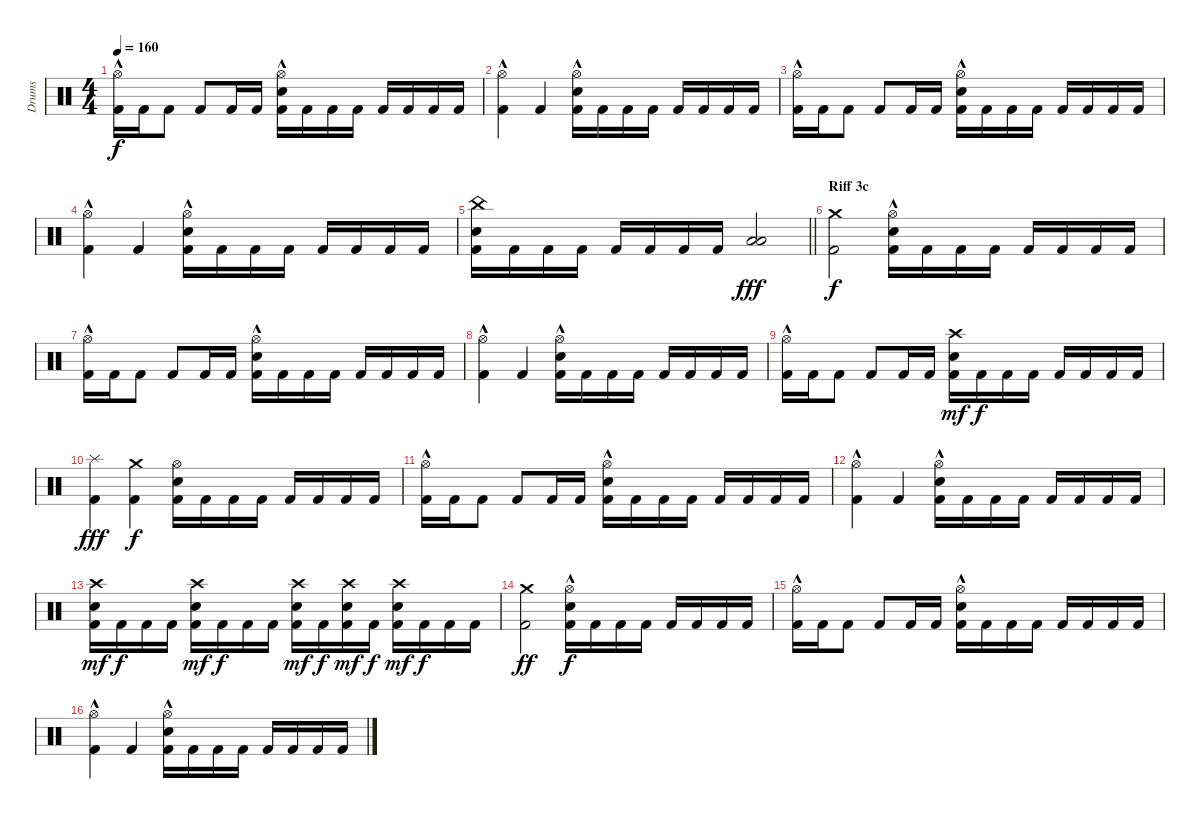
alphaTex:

\track ("Drums" "Drums") {instrument percussion}
\staff {score}
\articulation defaults
\ts (4 4)
\tempo 160
\clef neutral
\ks c
("Hi-Hat (open)"{hac} "Kick (hit) 2").16{dy f} "Kick (hit) 2".16 "Kick (hit) 2".8 "Kick (hit) 2".8 "Kick (hit) 2".16 "Kick (hit) 2".16 ("Hi-Hat (open)"{hac} "Snare (hit) 2" "Kick (hit) 2").16 "Kick (hit) 2".16 "Kick (hit) 2".16 "Kick (hit) 2".16 "Kick (hit) 2".16 "Kick (hit) 2".16 "Kick (hit) 2".16 "Kick (hit) 2".16 |
("Hi-Hat (open)"{hac} "Kick (hit) 2").4 "Kick (hit) 2".4 ("Hi-Hat (open)"{hac} "Snare (hit) 2" "Kick (hit) 2").16 "Kick (hit) 2".16 "Kick (hit) 2".16 "Kick (hit) 2".16 "Kick (hit) 2".16 "Kick (hit) 2".16 "Kick (hit) 2".16 "Kick (hit) 2".16 |
("Hi-Hat (open)"{hac} "Kick (hit) 2").16 "Kick (hit) 2".16 "Kick (hit) 2".8 "Kick (hit) 2".8 "Kick (hit) 2".16 "Kick (hit) 2".16 ("Hi-Hat (open)"{hac} "Snare (hit) 2" "Kick (hit) 2").16 "Kick (hit) 2".16 "Kick (hit) 2".16 "Kick (hit) 2".16 "Kick (hit) 2".16 "Kick (hit) 2".16 "Kick (hit) 2".16 "Kick (hit) 2".16 |
("Hi-Hat (open)"{hac} "Kick (hit) 2").4 "Kick (hit) 2".4 ("Hi-Hat (open)"{hac} "Snare (hit) 2" "Kick (hit) 2").16 "Kick (hit) 2".16 "Kick (hit) 2".16 "Kick (hit) 2".16 "Kick (hit) 2".16 "Kick (hit) 2".16 "Kick (hit) 2".16 "Kick (hit) 2".16 |
\barLineRight lightlight
("China (hit)" "Snare (hit) 2" "Kick (hit) 2").16 "Kick (hit) 2".16 "Kick (hit) 2".16 "Kick (hit) 2".16 "Kick (hit) 2".16 "Kick (hit) 2".16 "Kick (hit) 2".16 "Kick (hit) 2".16 ("Low Floor Tom (hit)" "Low Tom (hit)").2{dy fff} |
\section ("" "Riff 3c")
("Crash medium (hit)" "Kick (hit) 2").2{dy f} ("Hi-Hat (open)"{hac} "Snare (hit) 2" "Kick (hit) 2").16 "Kick (hit) 2".16 "Kick (hit) 2".16 "Kick (hit) 2".16 "Kick (hit) 2".16 "Kick (hit) 2".16 "Kick (hit) 2".16 "Kick (hit) 2".16 |
("Hi-Hat (open)"{hac} "Kick (hit) 2").16 "Kick (hit) 2".16 "Kick (hit) 2".8 "Kick (hit) 2".8 "Kick (hit) 2".16 "Kick (hit) 2".16 ("Hi-Hat (open)"{hac} "Snare (hit) 2" "Kick (hit) 2").16 "Kick (hit) 2".16 "Kick (hit) 2".16 "Kick (hit) 2".16 "Kick (hit) 2".16 "Kick (hit) 2".16 "Kick (hit) 2".16 "Kick (hit) 2".16 |
("Hi-Hat (open)"{hac} "Kick (hit) 2").4 "Kick (hit) 2".4 ("Hi-Hat (open)"{hac} "Snare (hit) 2" "Kick (hit) 2").16 "Kick (hit) 2".16 "Kick (hit) 2".16 "Kick (hit) 2".16 "Kick (hit) 2".16 "Kick (hit) 2".16 "Kick (hit) 2".16 "Kick (hit) 2".16 |
("Hi-Hat (open)"{hac} "Kick (hit) 2").16 "Kick (hit) 2".16 "Kick (hit) 2".8 "Kick (hit) 2".8 "Kick (hit) 2".16 "Kick (hit) 2".16 ("Crash high (hit)" "Snare (hit) 2" "Kick (hit) 2").16{dy mf} "Kick (hit) 2".16{dy f} "Kick (hit) 2".16 "Kick (hit) 2".16 "Kick (hit) 2".16 "Kick (hit) 2".16 "Kick (hit) 2".16 "Kick (hit) 2".16 |
("Splash (hit)" "Kick (hit) 2").4{dy fff} ("Crash medium (hit)" "Kick (hit) 2").4{dy f} ("Hi-Hat (open)" "Snare (hit) 2" "Kick (hit) 2").16 "Kick (hit) 2".16 "Kick (hit) 2".16 "Kick (hit) 2".16 "Kick (hit) 2".16 "Kick (hit) 2".16 "Kick (hit) 2".16 "Kick (hit) 2".16 |
("Hi-Hat (open)"{hac} "Kick (hit) 2").16 "Kick (hit) 2".16 "Kick (hit) 2".8 "Kick (hit) 2".8 "Kick (hit) 2".16 "Kick (hit) 2".16 ("Hi-Hat (open)"{hac} "Snare (hit) 2" "Kick (hit) 2").16 "Kick (hit) 2".16 "Kick (hit) 2".16 "Kick (hit) 2".16 "Kick (hit) 2".16 "Kick (hit) 2".16 "Kick (hit) 2".16 "Kick (hit) 2".16 |
("Hi-Hat (open)"{hac} "Kick (hit) 2").4 "Kick (hit) 2".4 ("Hi-Hat (open)"{hac} "Snare (hit) 2" "Kick (hit) 2").16 "Kick (hit) 2".16 "Kick (hit) 2".16 "Kick (hit) 2".16 "Kick (hit) 2".16 "Kick (hit) 2".16 "Kick (hit) 2".16 "Kick (hit) 2".16 |
("Crash high (hit)" "Snare (hit) 2" "Kick (hit) 2").16{dy mf} "Kick (hit) 2".16{dy f} "Kick (hit) 2".16 "Kick (hit) 2".16 ("Crash high (hit)" "Snare (hit) 2" "Kick (hit) 2").16{dy mf} "Kick (hit) 2".16{dy f} "Kick (hit) 2".16 "Kick (hit) 2".16 ("Crash high (hit)" "Snare (hit) 2" "Kick (hit) 2").16{dy mf} "Kick (hit) 2".16{dy f} ("Crash high (hit)" "Snare (hit) 2" "Kick (hit) 2").16{dy mf} "Kick (hit) 2".16{dy f} ("Crash high (hit)" "Snare (hit) 2" "Kick (hit) 2").16{dy mf} "Kick (hit) 2".16{dy f} "Kick (hit) 2".16 "Kick (hit) 2".16 |
("Crash medium (hit)" "Kick (hit) 2").2{dy ff} ("Hi-Hat (open)"{hac} "Snare (hit) 2" "Kick (hit) 2").16{dy f} "Kick (hit) 2".16 "Kick (hit) 2".16 "Kick (hit) 2".16 "Kick (hit) 2".16 "Kick (hit) 2".16 "Kick (hit) 2".16 "Kick (hit) 2".16 |
("Hi-Hat (open)"{hac} "Kick (hit) 2").16 "Kick (hit) 2".16 "Kick (hit) 2".8 "Kick (hit) 2".8 "Kick (hit) 2".16 "Kick (hit) 2".16 ("Hi-Hat (open)"{hac} "Snare (hit) 2" "Kick (hit) 2").16 "Kick (hit) 2".16 "Kick (hit) 2".16 "Kick (hit) 2".16 "Kick (hit) 2".16 "Kick (hit) 2".16 "Kick (hit) 2".16 "Kick (hit) 2".16 |
("Hi-Hat (open)"{hac} "Kick (hit) 2").4 "Kick (hit) 2".4 ("Hi-Hat (open)"{hac} "Snare (hit) 2" "Kick (hit) 2").16 "Kick (hit) 2".16 "Kick (hit) 2".16 "Kick (hit) 2".16 "Kick (hit) 2".16 "Kick (hit) 2".16 "Kick (hit) 2".16 "Kick (hit) 2".16
